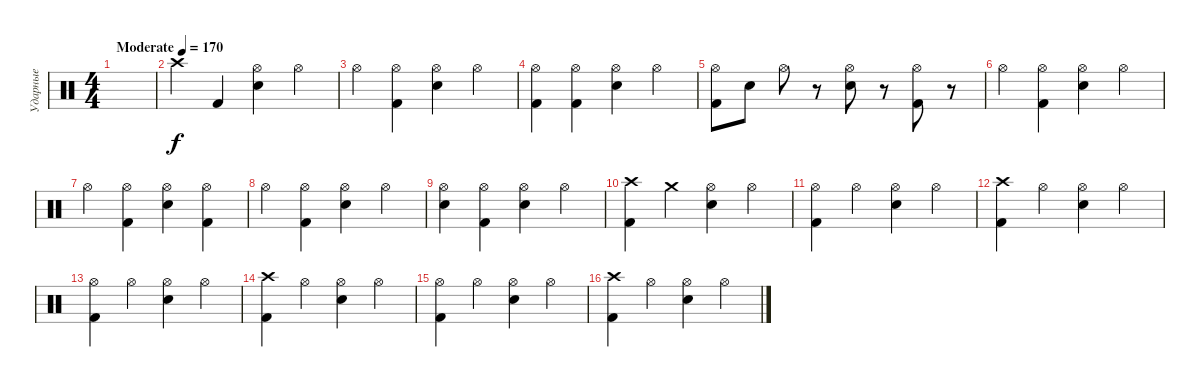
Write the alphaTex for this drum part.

\track ("Ударные" "Ударные") {instrument percussion}
\staff {score}
\articulation defaults
\ts (4 4)
\tempo (170 "Moderate")
\clef neutral
\ks c
|
"Crash high (hit)".4 "Kick (hit) 2".4 ("Hi-Hat (open)" "Electric Snare (hit)").4 "Hi-Hat (open)".4 |
"Hi-Hat (open)".4 ("Hi-Hat (open)" "Kick (hit) 2").4 ("Hi-Hat (open)" "Electric Snare (hit)").4 "Hi-Hat (open)".4 |
("Hi-Hat (open)" "Kick (hit) 2").4 ("Hi-Hat (open)" "Kick (hit) 2").4 ("Hi-Hat (open)" "Electric Snare (hit)").4 "Hi-Hat (open)".4 |
("Hi-Hat (open)" "Kick (hit) 2").8 "Electric Snare (hit)".8 "Hi-Hat (open)".8 r.8 ("Hi-Hat (open)" "Electric Snare (hit)").8 r.8 ("Hi-Hat (open)" "Kick (hit) 2").8 r.8 |
"Hi-Hat (open)".4 ("Hi-Hat (open)" "Kick (hit) 2").4 ("Hi-Hat (open)" "Electric Snare (hit)").4 "Hi-Hat (open)".4 |
"Hi-Hat (open)".4 ("Hi-Hat (open)" "Kick (hit) 2").4 ("Hi-Hat (open)" "Electric Snare (hit)").4 ("Hi-Hat (open)" "Kick (hit) 2").4 |
"Hi-Hat (open)".4 ("Hi-Hat (open)" "Kick (hit) 2").4 ("Hi-Hat (open)" "Electric Snare (hit)").4 "Hi-Hat (open)".4 |
("Hi-Hat (open)" "Electric Snare (hit)").4 ("Hi-Hat (open)" "Kick (hit) 2").4 ("Hi-Hat (open)" "Electric Snare (hit)").4 "Hi-Hat (open)".4 |
("Crash high (hit)" "Kick (hit) 2").4 "Crash medium (hit)".4 ("Hi-Hat (open)" "Electric Snare (hit)").4 "Hi-Hat (open)".4 |
("Hi-Hat (open)" "Kick (hit) 2").4 "Hi-Hat (open)".4 ("Hi-Hat (open)" "Electric Snare (hit)").4 "Hi-Hat (open)".4 |
("Crash high (hit)" "Kick (hit) 2").4 "Hi-Hat (open)".4 ("Hi-Hat (open)" "Electric Snare (hit)").4 "Hi-Hat (open)".4 |
("Hi-Hat (open)" "Kick (hit) 2").4 "Hi-Hat (open)".4 ("Hi-Hat (open)" "Electric Snare (hit)").4 "Hi-Hat (open)".4 |
("Crash high (hit)" "Kick (hit) 2").4 "Hi-Hat (open)".4 ("Hi-Hat (open)" "Electric Snare (hit)").4 "Hi-Hat (open)".4 |
("Hi-Hat (open)" "Kick (hit) 2").4 "Hi-Hat (open)".4 ("Hi-Hat (open)" "Electric Snare (hit)").4 "Hi-Hat (open)".4 |
("Crash high (hit)" "Kick (hit) 2").4 "Hi-Hat (open)".4 ("Hi-Hat (open)" "Electric Snare (hit)").4 "Hi-Hat (open)".4
